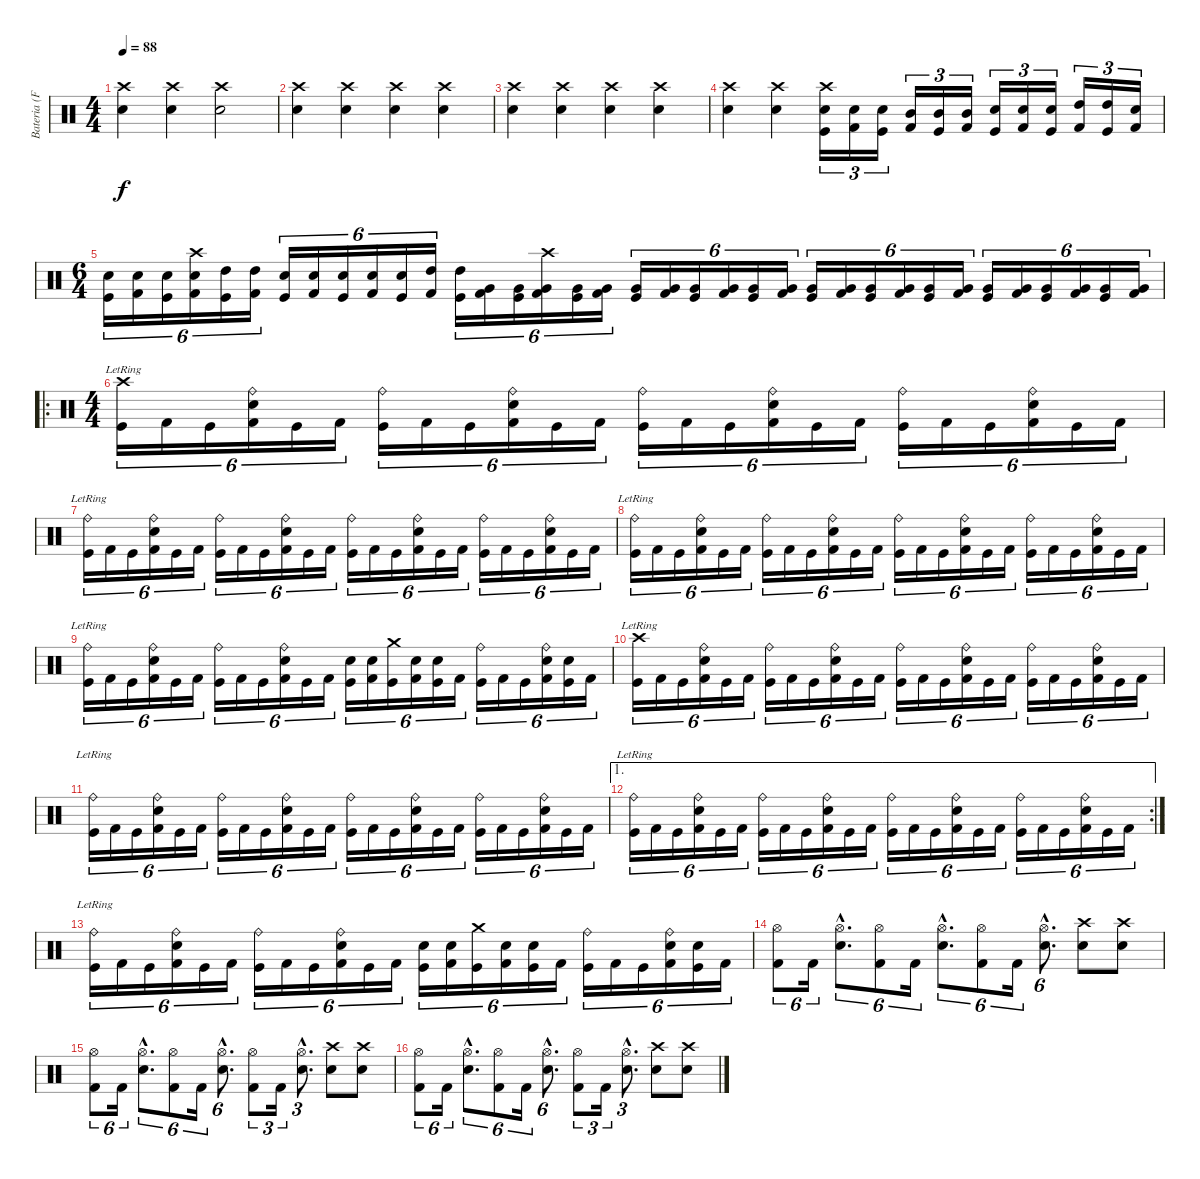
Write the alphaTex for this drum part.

\track ("Bateria (Fernando Scarcella)" "Bateria (F") {instrument percussion}
\staff {score}
\articulation defaults
\ts (4 4)
\tempo 88
\clef neutral
\ks c
("Crash high (hit)" "Snare (hit) 2").4{dy f} ("Crash high (hit)" "Snare (hit) 2").4 ("Crash high (hit)" "Snare (hit) 2").2 |
("Crash high (hit)" "Snare (hit) 2").4 ("Crash high (hit)" "Snare (hit) 2").4 ("Crash high (hit)" "Snare (hit) 2").4 ("Crash high (hit)" "Snare (hit) 2").4 |
("Crash high (hit)" "Snare (hit) 2").4 ("Crash high (hit)" "Snare (hit) 2").4 ("Crash high (hit)" "Snare (hit) 2").4 ("Crash high (hit)" "Snare (hit) 2").4 |
("Crash high (hit)" "Snare (hit) 2").4 ("Crash high (hit)" "Snare (hit) 2").4 ("Crash high (hit)" "Snare (hit) 2" "Kick (hit)").16{tu (3 2)} ("Snare (hit) 2" "Kick (hit) 2").16{tu (3 2)} ("Snare (hit) 2" "Kick (hit)").16{tu (3 2)} ("Mid Tom (hit)" "Kick (hit) 2").16{tu (3 2)} ("Mid Tom (hit)" "Kick (hit)").16{tu (3 2)} ("Mid Tom (hit)" "Kick (hit) 2").16{tu (3 2)} ("Snare (hit) 2" "Kick (hit)").16{tu (3 2)} ("Snare (hit) 2" "Kick (hit) 2").16{tu (3 2)} ("Snare (hit) 2" "Kick (hit)").16{tu (3 2)} ("High Tom (hit)" "Kick (hit) 2").16{tu (3 2)} ("High Tom (hit)" "Kick (hit)").16{tu (3 2)} ("Snare (hit) 2" "Kick (hit) 2").16{tu (3 2)} |
\ts (6 4)
("Snare (hit) 2" "Kick (hit)").16{tu (6 4)} ("Snare (hit) 2" "Kick (hit) 2").16{tu (6 4)} ("Snare (hit) 2" "Kick (hit)").16{tu (6 4)} ("Crash high (hit)" "Snare (hit) 2" "Kick (hit) 2").16{tu (6 4)} ("High Tom (hit)" "Kick (hit)").16{tu (6 4)} ("High Tom (hit)" "Kick (hit) 2").16{tu (6 4)} ("Snare (hit) 2" "Kick (hit)").16{tu (6 4)} ("Snare (hit) 2" "Kick (hit) 2").16{tu (6 4)} ("Snare (hit) 2" "Kick (hit)").16{tu (6 4)} ("Snare (hit) 2" "Kick (hit) 2").16{tu (6 4)} ("Snare (hit) 2" "Kick (hit)").16{tu (6 4)} ("High Tom (hit)" "Kick (hit) 2").16{tu (6 4)} ("High Tom (hit)" "Kick (hit)").16{tu (6 4)} ("Very Low Tom (hit)" "Kick (hit) 2").16{tu (6 4)} ("Very Low Tom (hit)" "Kick (hit)").16{tu (6 4)} ("Crash high (hit)" "Very Low Tom (hit)" "Kick (hit) 2").16{tu (6 4)} ("Very Low Tom (hit)" "Kick (hit)").16{tu (6 4)} ("Very Low Tom (hit)" "Kick (hit) 2").16{tu (6 4)} ("Very Low Tom (hit)" "Kick (hit)").16{tu (6 4)} ("Very Low Tom (hit)" "Kick (hit) 2").16{tu (6 4)} ("Very Low Tom (hit)" "Kick (hit)").16{tu (6 4)} ("Very Low Tom (hit)" "Kick (hit) 2").16{tu (6 4)} ("Very Low Tom (hit)" "Kick (hit)").16{tu (6 4)} ("Very Low Tom (hit)" "Kick (hit) 2").16{tu (6 4)} ("Very Low Tom (hit)" "Kick (hit)").16{tu (6 4)} ("Very Low Tom (hit)" "Kick (hit) 2").16{tu (6 4)} ("Very Low Tom (hit)" "Kick (hit)").16{tu (6 4)} ("Very Low Tom (hit)" "Kick (hit) 2").16{tu (6 4)} ("Very Low Tom (hit)" "Kick (hit)").16{tu (6 4)} ("Very Low Tom (hit)" "Kick (hit) 2").16{tu (6 4)} ("Very Low Tom (hit)" "Kick (hit)").16{tu (6 4)} ("Very Low Tom (hit)" "Kick (hit) 2").16{tu (6 4)} ("Very Low Tom (hit)" "Kick (hit)").16{tu (6 4)} ("Very Low Tom (hit)" "Kick (hit) 2").16{tu (6 4)} ("Very Low Tom (hit)" "Kick (hit)").16{tu (6 4)} ("Very Low Tom (hit)" "Kick (hit) 2").16{tu (6 4)} |
\ro
\ts (4 4)
("Crash high (hit)"{lr} "Kick (hit)").16{tu (6 4)} "Kick (hit) 2".16{tu (6 4)} "Kick (hit)".16{tu (6 4)} ("Ride (bell)" "Snare (hit) 2" "Kick (hit) 2").16{tu (6 4)} "Kick (hit)".16{tu (6 4)} "Kick (hit) 2".16{tu (6 4)} ("Ride (bell)" "Kick (hit)").16{tu (6 4)} "Kick (hit) 2".16{tu (6 4)} "Kick (hit)".16{tu (6 4)} ("Ride (bell)" "Snare (hit) 2" "Kick (hit) 2").16{tu (6 4)} "Kick (hit)".16{tu (6 4)} "Kick (hit) 2".16{tu (6 4)} ("Ride (bell)" "Kick (hit)").16{tu (6 4)} "Kick (hit) 2".16{tu (6 4)} "Kick (hit)".16{tu (6 4)} ("Ride (bell)" "Snare (hit) 2" "Kick (hit) 2").16{tu (6 4)} "Kick (hit)".16{tu (6 4)} "Kick (hit) 2".16{tu (6 4)} ("Ride (bell)" "Kick (hit)").16{tu (6 4)} "Kick (hit) 2".16{tu (6 4)} "Kick (hit)".16{tu (6 4)} ("Ride (bell)" "Snare (hit) 2" "Kick (hit) 2").16{tu (6 4)} "Kick (hit)".16{tu (6 4)} "Kick (hit) 2".16{tu (6 4)} |
("Ride (bell)"{lr} "Kick (hit)").16{tu (6 4)} "Kick (hit) 2".16{tu (6 4)} "Kick (hit)".16{tu (6 4)} ("Ride (bell)" "Snare (hit) 2" "Kick (hit) 2").16{tu (6 4)} "Kick (hit)".16{tu (6 4)} "Kick (hit) 2".16{tu (6 4)} ("Ride (bell)" "Kick (hit)").16{tu (6 4)} "Kick (hit) 2".16{tu (6 4)} "Kick (hit)".16{tu (6 4)} ("Ride (bell)" "Snare (hit) 2" "Kick (hit) 2").16{tu (6 4)} "Kick (hit)".16{tu (6 4)} "Kick (hit) 2".16{tu (6 4)} ("Ride (bell)" "Kick (hit)").16{tu (6 4)} "Kick (hit) 2".16{tu (6 4)} "Kick (hit)".16{tu (6 4)} ("Ride (bell)" "Snare (hit) 2" "Kick (hit) 2").16{tu (6 4)} "Kick (hit)".16{tu (6 4)} "Kick (hit) 2".16{tu (6 4)} ("Ride (bell)" "Kick (hit)").16{tu (6 4)} "Kick (hit) 2".16{tu (6 4)} "Kick (hit)".16{tu (6 4)} ("Ride (bell)" "Snare (hit) 2" "Kick (hit) 2").16{tu (6 4)} "Kick (hit)".16{tu (6 4)} "Kick (hit) 2".16{tu (6 4)} |
("Ride (bell)"{lr} "Kick (hit)").16{tu (6 4)} "Kick (hit) 2".16{tu (6 4)} "Kick (hit)".16{tu (6 4)} ("Ride (bell)" "Snare (hit) 2" "Kick (hit) 2").16{tu (6 4)} "Kick (hit)".16{tu (6 4)} "Kick (hit) 2".16{tu (6 4)} ("Ride (bell)" "Kick (hit)").16{tu (6 4)} "Kick (hit) 2".16{tu (6 4)} "Kick (hit)".16{tu (6 4)} ("Ride (bell)" "Snare (hit) 2" "Kick (hit) 2").16{tu (6 4)} "Kick (hit)".16{tu (6 4)} "Kick (hit) 2".16{tu (6 4)} ("Ride (bell)" "Kick (hit)").16{tu (6 4)} "Kick (hit) 2".16{tu (6 4)} "Kick (hit)".16{tu (6 4)} ("Ride (bell)" "Snare (hit) 2" "Kick (hit) 2").16{tu (6 4)} "Kick (hit)".16{tu (6 4)} "Kick (hit) 2".16{tu (6 4)} ("Ride (bell)" "Kick (hit)").16{tu (6 4)} "Kick (hit) 2".16{tu (6 4)} "Kick (hit)".16{tu (6 4)} ("Ride (bell)" "Snare (hit) 2" "Kick (hit) 2").16{tu (6 4)} "Kick (hit)".16{tu (6 4)} "Kick (hit) 2".16{tu (6 4)} |
("Ride (bell)"{lr} "Kick (hit)").16{tu (6 4)} "Kick (hit) 2".16{tu (6 4)} "Kick (hit)".16{tu (6 4)} ("Ride (bell)" "Snare (hit) 2" "Kick (hit) 2").16{tu (6 4)} "Kick (hit)".16{tu (6 4)} "Kick (hit) 2".16{tu (6 4)} ("Ride (bell)" "Kick (hit)").16{tu (6 4)} "Kick (hit) 2".16{tu (6 4)} "Kick (hit)".16{tu (6 4)} ("Ride (bell)" "Snare (hit) 2" "Kick (hit) 2").16{tu (6 4)} "Kick (hit)".16{tu (6 4)} "Kick (hit) 2".16{tu (6 4)} ("Snare (hit) 2" "Kick (hit)").16{tu (6 4)} ("Snare (hit) 2" "Kick (hit) 2").16{tu (6 4)} ("Crash medium (hit)" "Kick (hit)").16{tu (6 4)} ("Snare (hit) 2" "Kick (hit) 2").16{tu (6 4)} ("Snare (hit) 2" "Kick (hit)").16{tu (6 4)} "Kick (hit) 2".16{tu (6 4)} ("Ride (bell)" "Kick (hit)").16{tu (6 4)} "Kick (hit) 2".16{tu (6 4)} "Kick (hit)".16{tu (6 4)} ("Ride (bell)" "Snare (hit) 2" "Kick (hit) 2").16{tu (6 4)} ("Snare (hit) 2" "Kick (hit)").16{tu (6 4)} "Kick (hit) 2".16{tu (6 4)} |
("Crash high (hit)"{lr} "Kick (hit)").16{tu (6 4)} "Kick (hit) 2".16{tu (6 4)} "Kick (hit)".16{tu (6 4)} ("Ride (bell)" "Snare (hit) 2" "Kick (hit) 2").16{tu (6 4)} "Kick (hit)".16{tu (6 4)} "Kick (hit) 2".16{tu (6 4)} ("Ride (bell)" "Kick (hit)").16{tu (6 4)} "Kick (hit) 2".16{tu (6 4)} "Kick (hit)".16{tu (6 4)} ("Ride (bell)" "Snare (hit) 2" "Kick (hit) 2").16{tu (6 4)} "Kick (hit)".16{tu (6 4)} "Kick (hit) 2".16{tu (6 4)} ("Ride (bell)" "Kick (hit)").16{tu (6 4)} "Kick (hit) 2".16{tu (6 4)} "Kick (hit)".16{tu (6 4)} ("Ride (bell)" "Snare (hit) 2" "Kick (hit) 2").16{tu (6 4)} "Kick (hit)".16{tu (6 4)} "Kick (hit) 2".16{tu (6 4)} ("Ride (bell)" "Kick (hit)").16{tu (6 4)} "Kick (hit) 2".16{tu (6 4)} "Kick (hit)".16{tu (6 4)} ("Ride (bell)" "Snare (hit) 2" "Kick (hit) 2").16{tu (6 4)} "Kick (hit)".16{tu (6 4)} "Kick (hit) 2".16{tu (6 4)} |
("Ride (bell)"{lr} "Kick (hit)").16{tu (6 4)} "Kick (hit) 2".16{tu (6 4)} "Kick (hit)".16{tu (6 4)} ("Ride (bell)" "Snare (hit) 2" "Kick (hit) 2").16{tu (6 4)} "Kick (hit)".16{tu (6 4)} "Kick (hit) 2".16{tu (6 4)} ("Ride (bell)" "Kick (hit)").16{tu (6 4)} "Kick (hit) 2".16{tu (6 4)} "Kick (hit)".16{tu (6 4)} ("Ride (bell)" "Snare (hit) 2" "Kick (hit) 2").16{tu (6 4)} "Kick (hit)".16{tu (6 4)} "Kick (hit) 2".16{tu (6 4)} ("Ride (bell)" "Kick (hit)").16{tu (6 4)} "Kick (hit) 2".16{tu (6 4)} "Kick (hit)".16{tu (6 4)} ("Ride (bell)" "Snare (hit) 2" "Kick (hit) 2").16{tu (6 4)} "Kick (hit)".16{tu (6 4)} "Kick (hit) 2".16{tu (6 4)} ("Ride (bell)" "Kick (hit)").16{tu (6 4)} "Kick (hit) 2".16{tu (6 4)} "Kick (hit)".16{tu (6 4)} ("Ride (bell)" "Snare (hit) 2" "Kick (hit) 2").16{tu (6 4)} "Kick (hit)".16{tu (6 4)} "Kick (hit) 2".16{tu (6 4)} |
\ae 1
\rc 2
("Ride (bell)"{lr} "Kick (hit)").16{tu (6 4)} "Kick (hit) 2".16{tu (6 4)} "Kick (hit)".16{tu (6 4)} ("Ride (bell)" "Snare (hit) 2" "Kick (hit) 2").16{tu (6 4)} "Kick (hit)".16{tu (6 4)} "Kick (hit) 2".16{tu (6 4)} ("Ride (bell)" "Kick (hit)").16{tu (6 4)} "Kick (hit) 2".16{tu (6 4)} "Kick (hit)".16{tu (6 4)} ("Ride (bell)" "Snare (hit) 2" "Kick (hit) 2").16{tu (6 4)} "Kick (hit)".16{tu (6 4)} "Kick (hit) 2".16{tu (6 4)} ("Ride (bell)" "Kick (hit)").16{tu (6 4)} "Kick (hit) 2".16{tu (6 4)} "Kick (hit)".16{tu (6 4)} ("Ride (bell)" "Snare (hit) 2" "Kick (hit) 2").16{tu (6 4)} "Kick (hit)".16{tu (6 4)} "Kick (hit) 2".16{tu (6 4)} ("Ride (bell)" "Kick (hit)").16{tu (6 4)} "Kick (hit) 2".16{tu (6 4)} "Kick (hit)".16{tu (6 4)} ("Ride (bell)" "Snare (hit) 2" "Kick (hit) 2").16{tu (6 4)} "Kick (hit)".16{tu (6 4)} "Kick (hit) 2".16{tu (6 4)} |
("Ride (bell)"{lr} "Kick (hit)").16{tu (6 4)} "Kick (hit) 2".16{tu (6 4)} "Kick (hit)".16{tu (6 4)} ("Ride (bell)" "Snare (hit) 2" "Kick (hit) 2").16{tu (6 4)} "Kick (hit)".16{tu (6 4)} "Kick (hit) 2".16{tu (6 4)} ("Ride (bell)" "Kick (hit)").16{tu (6 4)} "Kick (hit) 2".16{tu (6 4)} "Kick (hit)".16{tu (6 4)} ("Ride (bell)" "Snare (hit) 2" "Kick (hit) 2").16{tu (6 4)} "Kick (hit)".16{tu (6 4)} "Kick (hit) 2".16{tu (6 4)} ("Snare (hit) 2" "Kick (hit)").16{tu (6 4)} ("Snare (hit) 2" "Kick (hit) 2").16{tu (6 4)} ("Crash medium (hit)" "Kick (hit)").16{tu (6 4)} ("Snare (hit) 2" "Kick (hit) 2").16{tu (6 4)} ("Snare (hit) 2" "Kick (hit)").16{tu (6 4)} "Kick (hit) 2".16{tu (6 4)} ("Ride (bell)" "Kick (hit)").16{tu (6 4)} "Kick (hit) 2".16{tu (6 4)} "Kick (hit)".16{tu (6 4)} ("Ride (bell)" "Snare (hit) 2" "Kick (hit) 2").16{tu (6 4)} ("Snare (hit) 2" "Kick (hit)").16{tu (6 4)} "Kick (hit) 2".16{tu (6 4)} |
("Hi-Hat (open)" "Kick (hit) 2").8{tu (6 4)} "Kick (hit) 2".16{tu (6 4)} ("Hi-Hat (open)"{hac} "Snare (hit) 2"{hac}).8{d tu (6 4)} ("Hi-Hat (open)" "Kick (hit) 2").8{tu (6 4)} "Kick (hit) 2".16{tu (6 4)} ("Hi-Hat (open)"{hac} "Snare (hit) 2"{hac}).8{d tu (6 4)} ("Hi-Hat (open)" "Kick (hit) 2").8{tu (6 4)} "Kick (hit) 2".16{tu (6 4)} ("Hi-Hat (open)"{hac} "Snare (hit) 2"{hac}).8{d tu (6 4)} ("Crash high (hit)" "Snare (hit) 2").8 ("Crash high (hit)" "Snare (hit) 2").8 |
("Hi-Hat (open)" "Kick (hit) 2").8{tu (6 4)} "Kick (hit) 2".16{tu (6 4)} ("Hi-Hat (open)"{hac} "Snare (hit) 2"{hac}).8{d tu (6 4)} ("Hi-Hat (open)" "Kick (hit) 2").8{tu (6 4)} "Kick (hit) 2".16{tu (6 4)} ("Hi-Hat (open)"{hac} "Snare (hit) 2"{hac}).8{d tu (6 4)} ("Hi-Hat (open)" "Kick (hit) 2").8{tu (3 2)} "Kick (hit) 2".16{tu (3 2)} ("Hi-Hat (open)"{hac} "Snare (hit) 2"{hac}).8{d tu (3 2)} ("Crash high (hit)" "Snare (hit) 2").8 ("Crash high (hit)" "Snare (hit) 2").8 |
("Hi-Hat (open)" "Kick (hit) 2").8{tu (6 4)} "Kick (hit) 2".16{tu (6 4)} ("Hi-Hat (open)"{hac} "Snare (hit) 2"{hac}).8{d tu (6 4)} ("Hi-Hat (open)" "Kick (hit) 2").8{tu (6 4)} "Kick (hit) 2".16{tu (6 4)} ("Hi-Hat (open)"{hac} "Snare (hit) 2"{hac}).8{d tu (6 4)} ("Hi-Hat (open)" "Kick (hit) 2").8{tu (3 2)} "Kick (hit) 2".16{tu (3 2)} ("Hi-Hat (open)"{hac} "Snare (hit) 2"{hac}).8{d tu (3 2)} ("Crash high (hit)" "Snare (hit) 2").8 ("Crash high (hit)" "Snare (hit) 2").8
